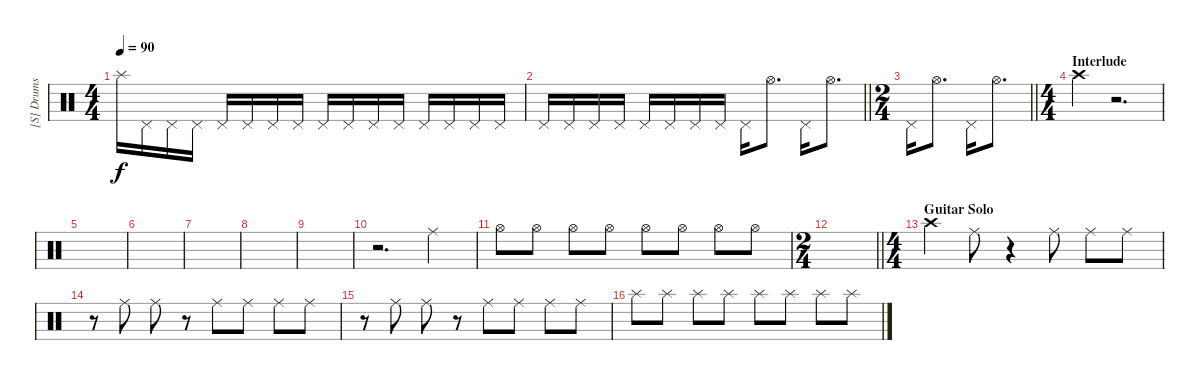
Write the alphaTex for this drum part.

\track ("[S] Drums II (Stewart)" "[S] Drums ") {instrument percussion}
\staff {score}
\articulation defaults
\ts (4 4)
\tempo 90
\clef neutral
\ks c "Splash (hit)".16{dy f} "Pedal Hi-Hat (hit)".16 "Pedal Hi-Hat (hit)".16 "Pedal Hi-Hat (hit)".16 "Pedal Hi-Hat (hit)".16 "Pedal Hi-Hat (hit)".16 "Pedal Hi-Hat (hit)".16 "Pedal Hi-Hat (hit)".16 "Pedal Hi-Hat (hit)".16 "Pedal Hi-Hat (hit)".16 "Pedal Hi-Hat (hit)".16 "Pedal Hi-Hat (hit)".16 "Pedal Hi-Hat (hit)".16 "Pedal Hi-Hat (hit)".16 "Pedal Hi-Hat (hit)".16 "Pedal Hi-Hat (hit)".16
|
\barLineRight lightlight "Pedal Hi-Hat (hit)".16 "Pedal Hi-Hat (hit)".16 "Pedal Hi-Hat (hit)".16 "Pedal Hi-Hat (hit)".16 "Pedal Hi-Hat (hit)".16 "Pedal Hi-Hat (hit)".16 "Pedal Hi-Hat (hit)".16 "Pedal Hi-Hat (hit)".16 "Pedal Hi-Hat (hit)".16 "Hi-Hat (open)".8{d} "Pedal Hi-Hat (hit)".16 "Hi-Hat (open)".8{d}
|
\ts (2 4)
\barLineRight lightlight "Pedal Hi-Hat (hit)".16 "Hi-Hat (open)".8{d} "Pedal Hi-Hat (hit)".16 "Hi-Hat (open)".8{d}
|
\ts (4 4)
\section ("" "Interlude")
"Crash high (hit)".4 r.2{d} |
|
|
|
|
|
r.2{d} "Ride (middle)".4 |
"Hi-Hat (open)".8 "Hi-Hat (open)".8 "Hi-Hat (open)".8 "Hi-Hat (open)".8 "Hi-Hat (open)".8 "Hi-Hat (open)".8 "Hi-Hat (open)".8 "Hi-Hat (open)".8 |
\ts (2 4)
\barLineRight lightlight
|
\ts (4 4)
\section ("" "Guitar Solo ")
"Crash high (hit)".4 "Ride (middle)".8 r.4 "Ride (middle)".8 "Ride (middle)".8 "Ride (middle)".8 |
r.8 "Ride (middle)".8 "Ride (middle)".8 r.8 "Ride (middle)".8 "Ride (middle)".8 "Ride (middle)".8 "Ride (middle)".8 |
r.8 "Ride (middle)".8 "Ride (middle)".8 r.8 "Ride (middle)".8 "Ride (middle)".8 "Ride (middle)".8 "Ride (middle)".8 |
"Splash (hit)".8 "Splash (hit)".8 "Splash (hit)".8 "Splash (hit)".8 "Splash (hit)".8 "Splash (hit)".8 "Splash (hit)".8 "Splash (hit)".8
